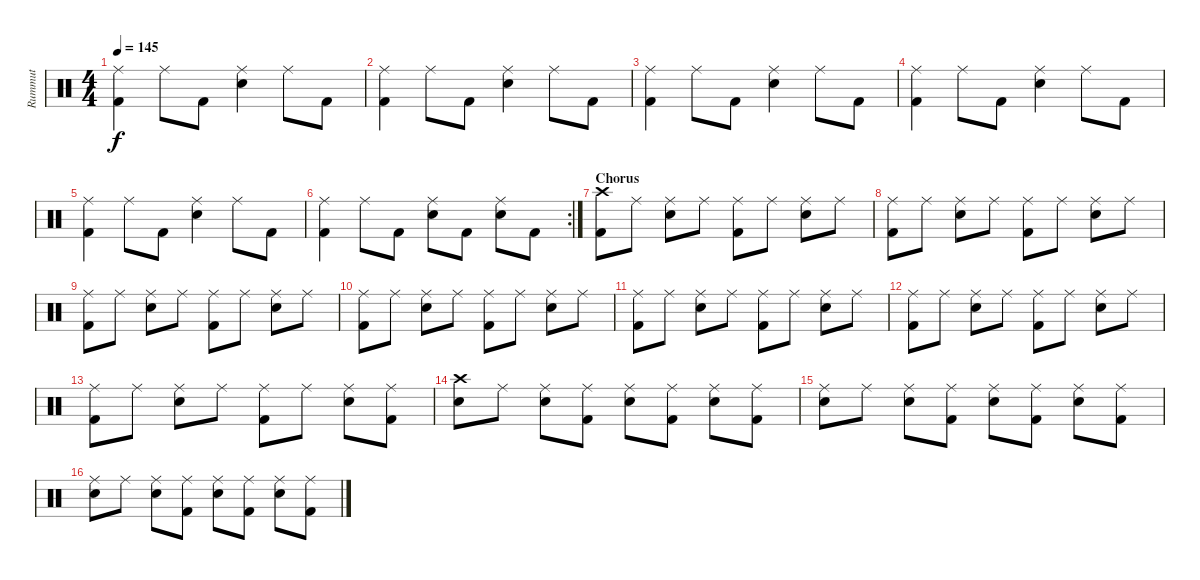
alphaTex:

\track ("Rummut" "Rummut") {instrument percussion}
\staff {score}
\articulation defaults
\ts (4 4)
\tempo 145
\clef neutral
\ks c
("Ride (middle)" "Kick (hit) 2").4{dy f} "Ride (middle)".8 "Kick (hit) 2".8 ("Ride (middle)" "Electric Snare (hit)").4 "Ride (middle)".8 "Kick (hit) 2".8 |
("Ride (middle)" "Kick (hit) 2").4 "Ride (middle)".8 "Kick (hit) 2".8 ("Ride (middle)" "Electric Snare (hit)").4 "Ride (middle)".8 "Kick (hit) 2".8 |
("Ride (middle)" "Kick (hit) 2").4 "Ride (middle)".8 "Kick (hit) 2".8 ("Ride (middle)" "Electric Snare (hit)").4 "Ride (middle)".8 "Kick (hit) 2".8 |
("Ride (middle)" "Kick (hit) 2").4 "Ride (middle)".8 "Kick (hit) 2".8 ("Ride (middle)" "Electric Snare (hit)").4 "Ride (middle)".8 "Kick (hit) 2".8 |
("Ride (middle)" "Kick (hit) 2").4 "Ride (middle)".8 "Kick (hit) 2".8 ("Ride (middle)" "Electric Snare (hit)").4 "Ride (middle)".8 "Kick (hit) 2".8 |
\rc 2
("Ride (middle)" "Kick (hit) 2").4 "Ride (middle)".8 "Kick (hit) 2".8 ("Ride (middle)" "Electric Snare (hit)").8 "Kick (hit) 2".8 ("Ride (middle)" "Electric Snare (hit)").8 "Kick (hit) 2".8 |
\section ("" "Chorus")
("Crash high (hit)" "Kick (hit) 2").8 "Ride (middle)".8 ("Ride (middle)" "Electric Snare (hit)").8 "Ride (middle)".8 ("Ride (middle)" "Kick (hit) 2").8 "Ride (middle)".8 ("Ride (middle)" "Electric Snare (hit)").8 "Ride (middle)".8 |
("Ride (middle)" "Kick (hit) 2").8 "Ride (middle)".8 ("Ride (middle)" "Electric Snare (hit)").8 "Ride (middle)".8 ("Ride (middle)" "Kick (hit) 2").8 "Ride (middle)".8 ("Ride (middle)" "Electric Snare (hit)").8 "Ride (middle)".8 |
("Ride (middle)" "Kick (hit) 2").8 "Ride (middle)".8 ("Ride (middle)" "Electric Snare (hit)").8 "Ride (middle)".8 ("Ride (middle)" "Kick (hit) 2").8 "Ride (middle)".8 ("Ride (middle)" "Electric Snare (hit)").8 "Ride (middle)".8 |
("Ride (middle)" "Kick (hit) 2").8 "Ride (middle)".8 ("Ride (middle)" "Electric Snare (hit)").8 "Ride (middle)".8 ("Ride (middle)" "Kick (hit) 2").8 "Ride (middle)".8 ("Ride (middle)" "Electric Snare (hit)").8 "Ride (middle)".8 |
("Ride (middle)" "Kick (hit) 2").8 "Ride (middle)".8 ("Ride (middle)" "Electric Snare (hit)").8 "Ride (middle)".8 ("Ride (middle)" "Kick (hit) 2").8 "Ride (middle)".8 ("Ride (middle)" "Electric Snare (hit)").8 "Ride (middle)".8 |
("Ride (middle)" "Kick (hit) 2").8 "Ride (middle)".8 ("Ride (middle)" "Electric Snare (hit)").8 "Ride (middle)".8 ("Ride (middle)" "Kick (hit) 2").8 "Ride (middle)".8 ("Ride (middle)" "Electric Snare (hit)").8 "Ride (middle)".8 |
("Ride (middle)" "Kick (hit) 2").8 "Ride (middle)".8 ("Ride (middle)" "Electric Snare (hit)").8 "Ride (middle)".8 ("Ride (middle)" "Kick (hit) 2").8 "Ride (middle)".8 ("Ride (middle)" "Electric Snare (hit)").8 ("Ride (middle)" "Kick (hit) 2").8 |
("Crash high (hit)" "Electric Snare (hit)").8 "Ride (middle)".8 ("Ride (middle)" "Electric Snare (hit)").8 ("Ride (middle)" "Kick (hit) 2").8 ("Ride (middle)" "Electric Snare (hit)").8 ("Ride (middle)" "Kick (hit) 2").8 ("Ride (middle)" "Electric Snare (hit)").8 ("Ride (middle)" "Kick (hit) 2").8 |
("Ride (middle)" "Electric Snare (hit)").8 "Ride (middle)".8 ("Ride (middle)" "Electric Snare (hit)").8 ("Ride (middle)" "Kick (hit) 2").8 ("Ride (middle)" "Electric Snare (hit)").8 ("Ride (middle)" "Kick (hit) 2").8 ("Ride (middle)" "Electric Snare (hit)").8 ("Ride (middle)" "Kick (hit) 2").8 |
("Ride (middle)" "Electric Snare (hit)").8 "Ride (middle)".8 ("Ride (middle)" "Electric Snare (hit)").8 ("Ride (middle)" "Kick (hit) 2").8 ("Ride (middle)" "Electric Snare (hit)").8 ("Ride (middle)" "Kick (hit) 2").8 ("Ride (middle)" "Electric Snare (hit)").8 ("Ride (middle)" "Kick (hit) 2").8
